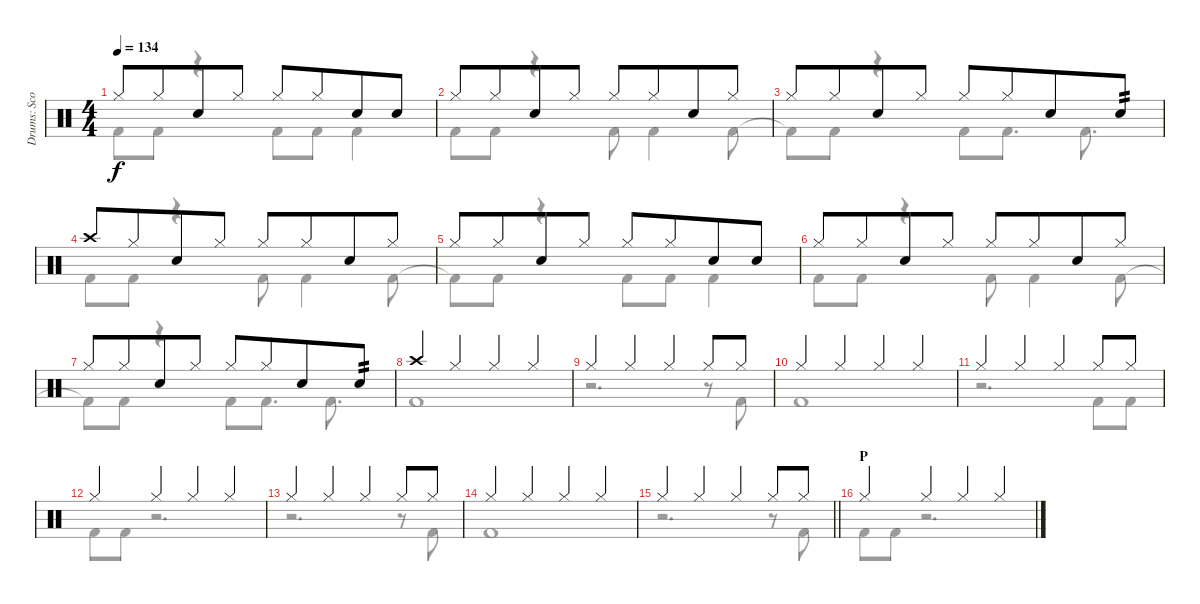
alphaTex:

\track ("Drums: Scott" "Drums: Sco") {instrument percussion}
\staff {score}
\articulation defaults
\voice
\ts (4 4)
\tempo 134
\clef neutral
\ks c "Hi-Hat (closed)".8{dy f} "Hi-Hat (closed)".8{beam merge} "Snare (hit) 2".8 "Hi-Hat (closed)".8 "Hi-Hat (closed)".8 "Hi-Hat (closed)".8{beam merge} "Snare (hit) 2".8 "Snare (hit) 2".8
|
"Hi-Hat (closed)".8 "Hi-Hat (closed)".8{beam merge} "Snare (hit) 2".8 "Hi-Hat (closed)".8 "Hi-Hat (closed)".8 "Hi-Hat (closed)".8{beam merge} "Snare (hit) 2".8 "Hi-Hat (closed)".8 |
"Hi-Hat (closed)".8 "Hi-Hat (closed)".8{beam merge} "Snare (hit) 2".8 "Hi-Hat (closed)".8 "Hi-Hat (closed)".8 "Hi-Hat (closed)".8{beam merge} "Snare (hit) 2".8 "Snare (hit) 2".8{tp 2} |
"Crash high (hit)".8 "Hi-Hat (closed)".8{beam merge} "Snare (hit) 2".8 "Hi-Hat (closed)".8 "Hi-Hat (closed)".8 "Hi-Hat (closed)".8{beam merge} "Snare (hit) 2".8 "Hi-Hat (closed)".8 |
"Hi-Hat (closed)".8 "Hi-Hat (closed)".8{beam merge} "Snare (hit) 2".8 "Hi-Hat (closed)".8 "Hi-Hat (closed)".8 "Hi-Hat (closed)".8{beam merge} "Snare (hit) 2".8 "Snare (hit) 2".8 |
"Hi-Hat (closed)".8 "Hi-Hat (closed)".8{beam merge} "Snare (hit) 2".8 "Hi-Hat (closed)".8 "Hi-Hat (closed)".8 "Hi-Hat (closed)".8{beam merge} "Snare (hit) 2".8 "Hi-Hat (closed)".8 |
"Hi-Hat (closed)".8 "Hi-Hat (closed)".8{beam merge} "Snare (hit) 2".8 "Hi-Hat (closed)".8 "Hi-Hat (closed)".8 "Hi-Hat (closed)".8{beam merge} "Snare (hit) 2".8 "Snare (hit) 2".8{tp 2} |
"Crash high (hit)".4 "Hi-Hat (closed)".4 "Hi-Hat (closed)".4 "Hi-Hat (closed)".4 |
"Hi-Hat (closed)".4 "Hi-Hat (closed)".4 "Hi-Hat (closed)".4 "Hi-Hat (closed)".8 "Hi-Hat (closed)".8 |
"Hi-Hat (closed)".4 "Hi-Hat (closed)".4 "Hi-Hat (closed)".4 "Hi-Hat (closed)".4 |
"Hi-Hat (closed)".4 "Hi-Hat (closed)".4 "Hi-Hat (closed)".4 "Hi-Hat (closed)".8 "Hi-Hat (closed)".8 |
"Hi-Hat (closed)".4 "Hi-Hat (closed)".4 "Hi-Hat (closed)".4 "Hi-Hat (closed)".4 |
"Hi-Hat (closed)".4 "Hi-Hat (closed)".4 "Hi-Hat (closed)".4 "Hi-Hat (closed)".8 "Hi-Hat (closed)".8 |
"Hi-Hat (closed)".4 "Hi-Hat (closed)".4 "Hi-Hat (closed)".4 "Hi-Hat (closed)".4 |
\barLineRight lightlight "Hi-Hat (closed)".4 "Hi-Hat (closed)".4 "Hi-Hat (closed)".4 "Hi-Hat (closed)".8 "Hi-Hat (closed)".8
|
\section ("" "P")
"Hi-Hat (closed)".4 "Hi-Hat (closed)".4 "Hi-Hat (closed)".4 "Hi-Hat (closed)".4
\voice
\clef neutral
\ottava regular
\simile none
\ks c "Kick (hit) 2"{t}.8{dy f} "Kick (hit) 2".8
r.4 "Kick (hit) 2".8 "Kick (hit) 2".8 "Kick (hit) 2".4 |
"Kick (hit) 2".8 "Kick (hit) 2".8 r.4 "Kick (hit) 2".8 "Kick (hit) 2".4 "Kick (hit) 2".8 |
"Kick (hit) 2"{t}.8 "Kick (hit) 2".8 r.4 "Kick (hit) 2".8 "Kick (hit) 2".8{d} "Kick (hit) 2".8{d} |
"Kick (hit) 2".8 "Kick (hit) 2".8 r.4 "Kick (hit) 2".8 "Kick (hit) 2".4 "Kick (hit) 2".8 |
"Kick (hit) 2"{t}.8 "Kick (hit) 2".8 r.4 "Kick (hit) 2".8 "Kick (hit) 2".8 "Kick (hit) 2".4 |
"Kick (hit) 2".8 "Kick (hit) 2".8 r.4 "Kick (hit) 2".8 "Kick (hit) 2".4 "Kick (hit) 2".8 |
"Kick (hit) 2"{t}.8 "Kick (hit) 2".8 r.4 "Kick (hit) 2".8 "Kick (hit) 2".8{d} "Kick (hit) 2".8{d} |
"Kick (hit) 2".1 |
r.2{d} r.8 "Kick (hit) 2".8 |
"Kick (hit) 2".1 |
r.2{d} "Kick (hit) 2".8 "Kick (hit) 2".8 |
"Kick (hit) 2".8 "Kick (hit) 2".8 r.2{d} |
r.2{d} r.8 "Kick (hit) 2".8 |
"Kick (hit) 2".1 |
\barLineRight lightlight
r.2{d} r.8 "Kick (hit) 2".8 |
"Kick (hit) 2".8 "Kick (hit) 2".8 r.2{d}
